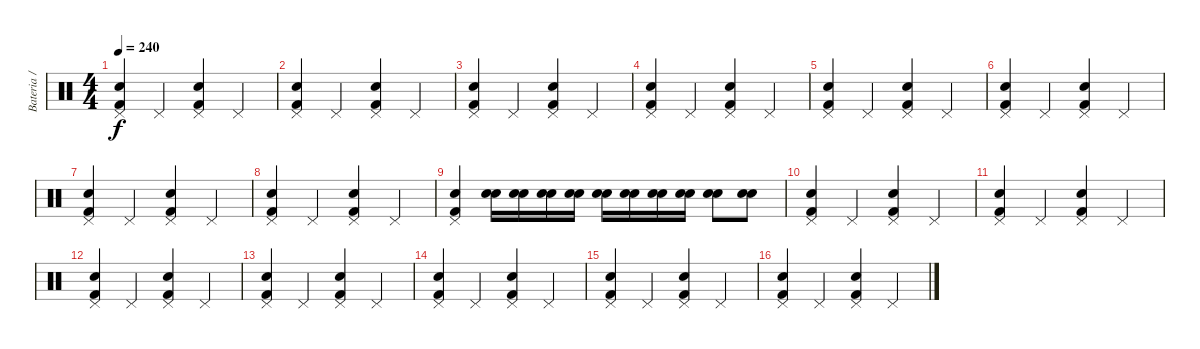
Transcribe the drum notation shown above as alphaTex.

\track ("Bateria / Percusión" "Bateria / ") {instrument percussion}
\staff {score}
\articulation defaults
\ts (4 4)
\tempo 240
\clef neutral
\ks c
("Kick (hit) 2" "Pedal Hi-Hat (hit)" "Snare (hit) 2").4{dy f} "Pedal Hi-Hat (hit)".4 ("Kick (hit) 2" "Pedal Hi-Hat (hit)" "Snare (hit) 2").4 "Pedal Hi-Hat (hit)".4 |
("Kick (hit) 2" "Pedal Hi-Hat (hit)" "Snare (hit) 2").4 "Pedal Hi-Hat (hit)".4 ("Kick (hit) 2" "Pedal Hi-Hat (hit)" "Snare (hit) 2").4 "Pedal Hi-Hat (hit)".4 |
("Kick (hit) 2" "Pedal Hi-Hat (hit)" "Snare (hit) 2").4 "Pedal Hi-Hat (hit)".4 ("Kick (hit) 2" "Pedal Hi-Hat (hit)" "Snare (hit) 2").4 "Pedal Hi-Hat (hit)".4 |
("Kick (hit) 2" "Pedal Hi-Hat (hit)" "Snare (hit) 2").4 "Pedal Hi-Hat (hit)".4 ("Kick (hit) 2" "Pedal Hi-Hat (hit)" "Snare (hit) 2").4 "Pedal Hi-Hat (hit)".4 |
("Kick (hit) 2" "Pedal Hi-Hat (hit)" "Snare (hit) 2").4 "Pedal Hi-Hat (hit)".4 ("Kick (hit) 2" "Pedal Hi-Hat (hit)" "Snare (hit) 2").4 "Pedal Hi-Hat (hit)".4 |
("Kick (hit) 2" "Pedal Hi-Hat (hit)" "Snare (hit) 2").4 "Pedal Hi-Hat (hit)".4 ("Kick (hit) 2" "Pedal Hi-Hat (hit)" "Snare (hit) 2").4 "Pedal Hi-Hat (hit)".4 |
("Kick (hit) 2" "Pedal Hi-Hat (hit)" "Snare (hit) 2").4 "Pedal Hi-Hat (hit)".4 ("Kick (hit) 2" "Pedal Hi-Hat (hit)" "Snare (hit) 2").4 "Pedal Hi-Hat (hit)".4 |
("Kick (hit) 2" "Pedal Hi-Hat (hit)" "Snare (hit) 2").4 "Pedal Hi-Hat (hit)".4 ("Kick (hit) 2" "Pedal Hi-Hat (hit)" "Snare (hit) 2").4 "Pedal Hi-Hat (hit)".4 |
\section ("" "")
("Kick (hit) 2" "Pedal Hi-Hat (hit)" "Snare (hit) 2").4 ("Snare (hit) 2" "Snare (hit) 2").16 ("Snare (hit) 2" "Snare (hit) 2").16 ("Snare (hit) 2" "Snare (hit) 2").16 ("Snare (hit) 2" "Snare (hit) 2").16 ("Snare (hit) 2" "Snare (hit) 2").16 ("Snare (hit) 2" "Snare (hit) 2").16 ("Snare (hit) 2" "Snare (hit) 2").16 ("Snare (hit) 2" "Snare (hit) 2").16 ("Snare (hit) 2" "Snare (hit) 2").8 ("Snare (hit) 2" "Snare (hit) 2").8 |
\section ("" "")
("Kick (hit) 2" "Pedal Hi-Hat (hit)" "Snare (hit) 2").4 "Pedal Hi-Hat (hit)".4 ("Kick (hit) 2" "Pedal Hi-Hat (hit)" "Snare (hit) 2").4 "Pedal Hi-Hat (hit)".4 |
("Kick (hit) 2" "Pedal Hi-Hat (hit)" "Snare (hit) 2").4 "Pedal Hi-Hat (hit)".4 ("Kick (hit) 2" "Pedal Hi-Hat (hit)" "Snare (hit) 2").4 "Pedal Hi-Hat (hit)".4 |
\section ("" "")
("Kick (hit) 2" "Pedal Hi-Hat (hit)" "Snare (hit) 2").4 "Pedal Hi-Hat (hit)".4 ("Kick (hit) 2" "Pedal Hi-Hat (hit)" "Snare (hit) 2").4 "Pedal Hi-Hat (hit)".4 |
("Kick (hit) 2" "Pedal Hi-Hat (hit)" "Snare (hit) 2").4 "Pedal Hi-Hat (hit)".4 ("Kick (hit) 2" "Pedal Hi-Hat (hit)" "Snare (hit) 2").4 "Pedal Hi-Hat (hit)".4 |
("Kick (hit) 2" "Pedal Hi-Hat (hit)" "Snare (hit) 2").4 "Pedal Hi-Hat (hit)".4 ("Kick (hit) 2" "Pedal Hi-Hat (hit)" "Snare (hit) 2").4 "Pedal Hi-Hat (hit)".4 |
("Kick (hit) 2" "Pedal Hi-Hat (hit)" "Snare (hit) 2").4 "Pedal Hi-Hat (hit)".4 ("Kick (hit) 2" "Pedal Hi-Hat (hit)" "Snare (hit) 2").4 "Pedal Hi-Hat (hit)".4 |
("Kick (hit) 2" "Pedal Hi-Hat (hit)" "Snare (hit) 2").4 "Pedal Hi-Hat (hit)".4 ("Kick (hit) 2" "Pedal Hi-Hat (hit)" "Snare (hit) 2").4 "Pedal Hi-Hat (hit)".4
